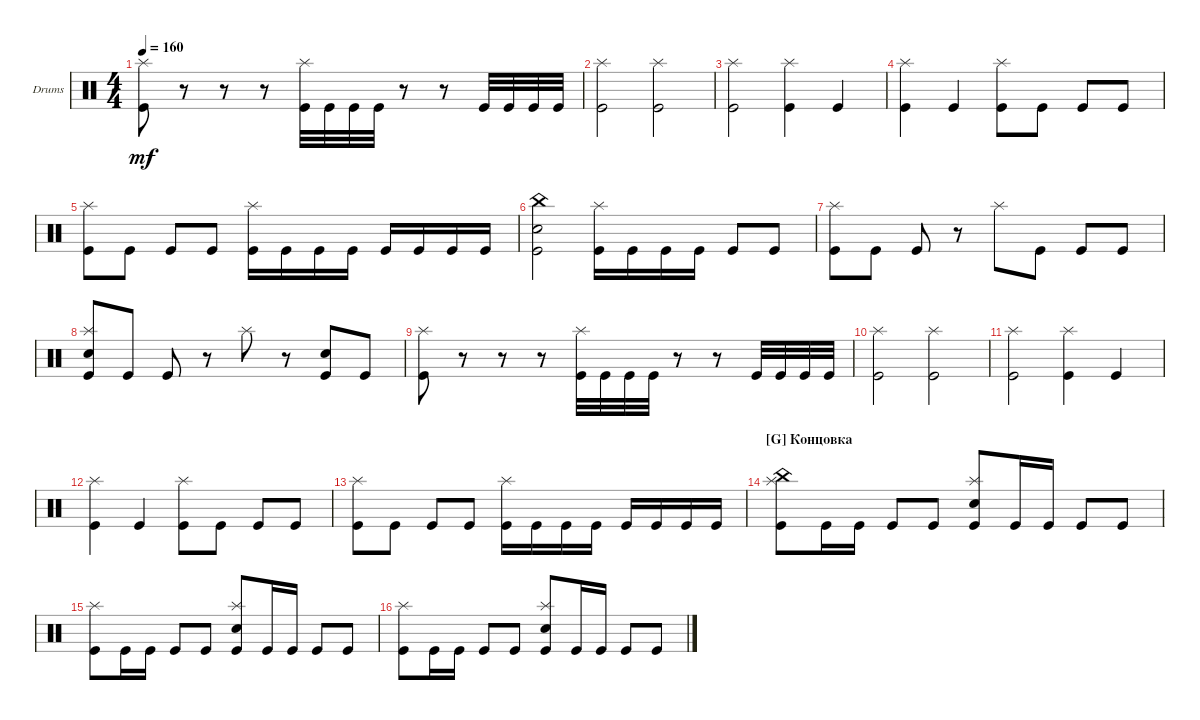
\defaultSystemsLayout 4
\bracketExtendMode groupsimilarinstruments
\firstSystemTrackNameOrientation horizontal
\otherSystemsTrackNameOrientation horizontal
\track ("Drumkit" "Drums") {instrument percussion}
\staff {score}
\articulation defaults
\ts (4 4)
\tempo 160
\clef neutral
\ks c
("Kick (hit)" "Splash (hit)").8{dy mf} r.8 r.8 r.8 ("Kick (hit)" "Splash (hit)").32 "Kick (hit)".32 "Kick (hit)".32 "Kick (hit)".32 r.8 r.8 "Kick (hit)".32 "Kick (hit)".32 "Kick (hit)".32 "Kick (hit)".32 |
("Kick (hit)" "Splash (hit)").2 ("Kick (hit)" "Splash (hit)").2 |
("Kick (hit)" "Splash (hit)").2 ("Kick (hit)" "Splash (hit)").4 "Kick (hit)".4 |
("Kick (hit)" "Splash (hit)").4 "Kick (hit)".4 ("Kick (hit)" "Splash (hit)").8 "Kick (hit)".8 "Kick (hit)".8 "Kick (hit)".8 |
("Kick (hit)" "Splash (hit)").8 "Kick (hit)".8 "Kick (hit)".8 "Kick (hit)".8 ("Kick (hit)" "Splash (hit)").16 "Kick (hit)".16 "Kick (hit)".16 "Kick (hit)".16 "Kick (hit)".16 "Kick (hit)".16 "Kick (hit)".16 "Kick (hit)".16 |
("Kick (hit)" "Snare (hit) 2" "China (hit)").2 ("Kick (hit)" "Splash (hit)").16 "Kick (hit)".16 "Kick (hit)".16 "Kick (hit)".16 "Kick (hit)".8 "Kick (hit)".8 |
("Kick (hit)" "Splash (hit)").8 "Kick (hit)".8 "Kick (hit)".8 r.8 "Splash (hit)".8 "Kick (hit)".8 "Kick (hit)".8 "Kick (hit)".8 |
("Kick (hit)" "Snare (hit) 2" "Splash (hit)").8 "Kick (hit)".8 "Kick (hit)".8 r.8 "Splash (hit)".8 r.8 ("Kick (hit)" "Snare (hit) 2").8 "Kick (hit)".8 |
("Kick (hit)" "Splash (hit)").8 r.8 r.8 r.8 ("Kick (hit)" "Splash (hit)").32 "Kick (hit)".32 "Kick (hit)".32 "Kick (hit)".32 r.8 r.8 "Kick (hit)".32 "Kick (hit)".32 "Kick (hit)".32 "Kick (hit)".32 |
("Kick (hit)" "Splash (hit)").2 ("Kick (hit)" "Splash (hit)").2 |
("Kick (hit)" "Splash (hit)").2 ("Kick (hit)" "Splash (hit)").4 "Kick (hit)".4 |
("Kick (hit)" "Splash (hit)").4 "Kick (hit)".4 ("Kick (hit)" "Splash (hit)").8 "Kick (hit)".8 "Kick (hit)".8 "Kick (hit)".8 |
("Kick (hit)" "Splash (hit)").8 "Kick (hit)".8 "Kick (hit)".8 "Kick (hit)".8 ("Kick (hit)" "Splash (hit)").16 "Kick (hit)".16 "Kick (hit)".16 "Kick (hit)".16 "Kick (hit)".16 "Kick (hit)".16 "Kick (hit)".16 "Kick (hit)".16 |
\section ("G" "Концовка")
("Kick (hit)" "China (hit)" "Splash (hit)").8 "Kick (hit)".16 "Kick (hit)".16 "Kick (hit)".8 "Kick (hit)".8 ("Kick (hit)" "Snare (hit) 2" "Splash (hit)").8 "Kick (hit)".16 "Kick (hit)".16 "Kick (hit)".8 "Kick (hit)".8 |
("Kick (hit)" "Splash (hit)").8 "Kick (hit)".16 "Kick (hit)".16 "Kick (hit)".8 "Kick (hit)".8 ("Kick (hit)" "Snare (hit) 2" "Splash (hit)").8 "Kick (hit)".16 "Kick (hit)".16 "Kick (hit)".8 "Kick (hit)".8 |
("Kick (hit)" "Splash (hit)").8 "Kick (hit)".16 "Kick (hit)".16 "Kick (hit)".8 "Kick (hit)".8 ("Kick (hit)" "Snare (hit) 2" "Splash (hit)").8 "Kick (hit)".16 "Kick (hit)".16 "Kick (hit)".8 "Kick (hit)".8
